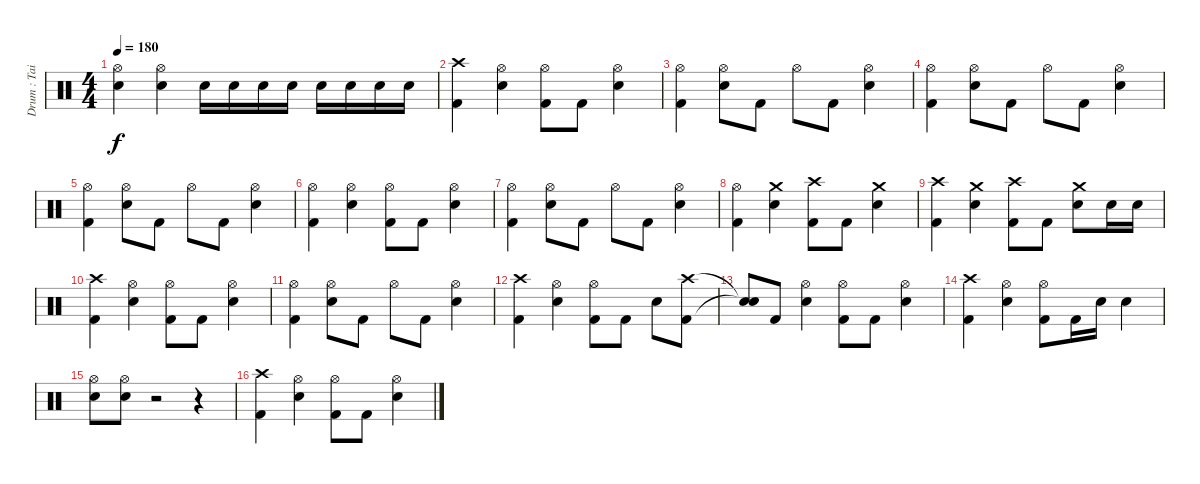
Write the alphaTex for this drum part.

\track ("Drum : Tainaka Ritsu" "Drum : Tai") {instrument percussion}
\staff {score}
\articulation defaults
\ts (4 4)
\tempo 180
\clef neutral
\ks c
("Hi-Hat (open)" "Snare (hit) 2").4{dy f} ("Hi-Hat (open)" "Snare (hit) 2").4 "Snare (hit) 2".16 "Snare (hit) 2".16 "Snare (hit) 2".16 "Snare (hit) 2".16 "Snare (hit) 2".16 "Snare (hit) 2".16 "Snare (hit) 2".16 "Snare (hit) 2".16 |
("Crash high (hit)" "Kick (hit) 2").4 ("Hi-Hat (open)" "Snare (hit) 2").4 ("Hi-Hat (open)" "Kick (hit) 2").8 "Kick (hit) 2".8 ("Hi-Hat (open)" "Snare (hit) 2").4 |
("Hi-Hat (open)" "Kick (hit) 2").4 ("Hi-Hat (open)" "Snare (hit) 2").8 "Kick (hit) 2".8 "Hi-Hat (open)".8 "Kick (hit) 2".8 ("Hi-Hat (open)" "Snare (hit) 2").4 |
("Hi-Hat (open)" "Kick (hit) 2").4 ("Hi-Hat (open)" "Snare (hit) 2").8 "Kick (hit) 2".8 "Hi-Hat (open)".8 "Kick (hit) 2".8 ("Hi-Hat (open)" "Snare (hit) 2").4 |
("Hi-Hat (open)" "Kick (hit) 2").4 ("Hi-Hat (open)" "Snare (hit) 2").8 "Kick (hit) 2".8 "Hi-Hat (open)".8 "Kick (hit) 2".8 ("Hi-Hat (open)" "Snare (hit) 2").4 |
("Hi-Hat (open)" "Kick (hit) 2").4 ("Hi-Hat (open)" "Snare (hit) 2").4 ("Hi-Hat (open)" "Kick (hit) 2").8 "Kick (hit) 2".8 ("Hi-Hat (open)" "Snare (hit) 2").4 |
("Hi-Hat (open)" "Kick (hit) 2").4 ("Hi-Hat (open)" "Snare (hit) 2").8 "Kick (hit) 2".8 "Hi-Hat (open)".8 "Kick (hit) 2".8 ("Hi-Hat (open)" "Snare (hit) 2").4 |
("Hi-Hat (open)" "Kick (hit) 2").4 ("Crash medium (hit)" "Snare (hit) 2").4 ("Crash high (hit)" "Kick (hit) 2").8 "Kick (hit) 2".8 ("Crash medium (hit)" "Snare (hit) 2").4 |
("Crash high (hit)" "Kick (hit) 2").4 ("Crash medium (hit)" "Snare (hit) 2").4 ("Crash high (hit)" "Kick (hit) 2").8 "Kick (hit) 2".8 ("Crash medium (hit)" "Snare (hit) 2").8 "Snare (hit) 2".16 "Snare (hit) 2".16 |
("Crash high (hit)" "Kick (hit) 2").4 ("Hi-Hat (open)" "Snare (hit) 2").4 ("Hi-Hat (open)" "Kick (hit) 2").8 "Kick (hit) 2".8 ("Hi-Hat (open)" "Snare (hit) 2").4 |
("Hi-Hat (open)" "Kick (hit) 2").4 ("Hi-Hat (open)" "Snare (hit) 2").8 "Kick (hit) 2".8 "Hi-Hat (open)".8 "Kick (hit) 2".8 ("Hi-Hat (open)" "Snare (hit) 2").4 |
("Crash high (hit)" "Kick (hit) 2").4 ("Hi-Hat (open)" "Snare (hit) 2").4 ("Hi-Hat (open)" "Kick (hit) 2").8 "Kick (hit) 2".8 "Snare (hit) 2".8 ("Crash high (hit)" "Kick (hit) 2").8 |
("Snare (hit)"{t} "Snare (hit)"{t}).8 "Kick (hit) 2".8 ("Hi-Hat (open)" "Snare (hit) 2").4 ("Hi-Hat (open)" "Kick (hit) 2").8 "Kick (hit) 2".8 ("Hi-Hat (open)" "Snare (hit) 2").4 |
("Crash high (hit)" "Kick (hit) 2").4 ("Hi-Hat (open)" "Snare (hit) 2").4 ("Hi-Hat (open)" "Kick (hit) 2").8 "Kick (hit) 2".16 "Snare (hit) 2".16 "Snare (hit) 2".4 |
("Hi-Hat (open)" "Snare (hit) 2").8 ("Hi-Hat (open)" "Snare (hit) 2").8 r.2 r.4 |
("Crash high (hit)" "Kick (hit) 2").4 ("Hi-Hat (open)" "Snare (hit) 2").4 ("Hi-Hat (open)" "Kick (hit) 2").8 "Kick (hit) 2".8 ("Hi-Hat (open)" "Snare (hit) 2").4
